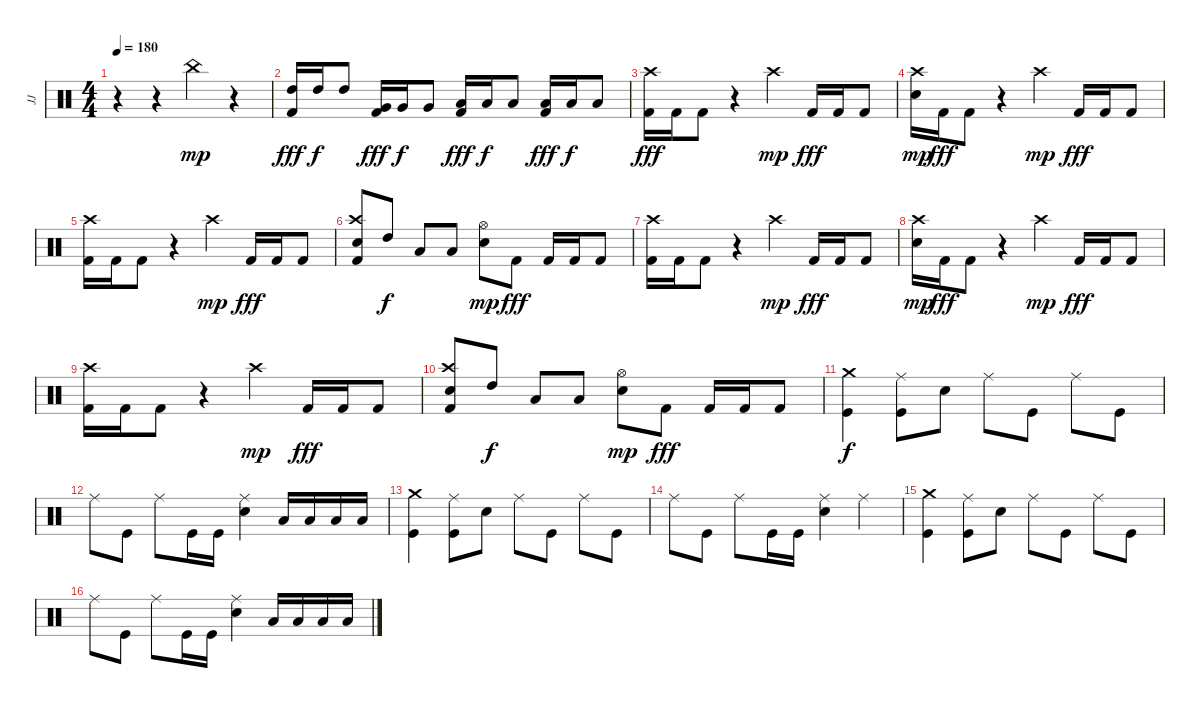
\track ("JJ" "JJ") {mute instrument percussion}
\staff {score}
\articulation defaults
\ts (4 4)
\tempo 180
\clef neutral
\ks c
r.4{dy mp} r.4 "China (hit)".4 r.4 |
("High Tom (hit)" "Kick (hit) 2").16{dy fff} "High Tom (hit)".16{dy f} "High Tom (hit)".8 ("Very Low Tom (hit)" "Kick (hit) 2").16{dy fff} "Very Low Tom (hit)".16{dy f} "Very Low Tom (hit)".8 ("Low Floor Tom (hit)" "Kick (hit) 2").16{dy fff} "Low Floor Tom (hit)".16{dy f} "Low Floor Tom (hit)".8 ("Low Floor Tom (hit)" "Kick (hit) 2").16{dy fff} "Low Floor Tom (hit)".16{dy f} "Low Floor Tom (hit)".8 |
("Crash high (hit)" "Kick (hit) 2").16{dy fff} "Kick (hit) 2".16 "Kick (hit) 2".8 r.4 "Crash high (hit)".4{dy mp} "Kick (hit) 2".16{dy fff} "Kick (hit) 2".16 "Kick (hit) 2".8 |
("Crash high (hit)" "Electric Snare (hit)").16{dy mp} "Kick (hit) 2".16{dy fff} "Kick (hit) 2".8 r.4 "Crash high (hit)".4{dy mp} "Kick (hit) 2".16{dy fff} "Kick (hit) 2".16 "Kick (hit) 2".8 |
("Crash high (hit)" "Kick (hit) 2").16 "Kick (hit) 2".16 "Kick (hit) 2".8 r.4 "Crash high (hit)".4{dy mp} "Kick (hit) 2".16{dy fff} "Kick (hit) 2".16 "Kick (hit) 2".8 |
("Crash high (hit)" "Electric Snare (hit)" "Kick (hit) 2").8 "High Tom (hit)".8{dy f} "Low Floor Tom (hit)".8 "Low Floor Tom (hit)".8 ("Hi-Hat (open)" "Electric Snare (hit)").8{dy mp} "Kick (hit) 2".8{dy fff} "Kick (hit) 2".16 "Kick (hit) 2".16 "Kick (hit) 2".8 |
("Crash high (hit)" "Kick (hit) 2").16 "Kick (hit) 2".16 "Kick (hit) 2".8 r.4 "Crash high (hit)".4{dy mp} "Kick (hit) 2".16{dy fff} "Kick (hit) 2".16 "Kick (hit) 2".8 |
("Crash high (hit)" "Electric Snare (hit)").16{dy mp} "Kick (hit) 2".16{dy fff} "Kick (hit) 2".8 r.4 "Crash high (hit)".4{dy mp} "Kick (hit) 2".16{dy fff} "Kick (hit) 2".16 "Kick (hit) 2".8 |
("Crash high (hit)" "Kick (hit) 2").16 "Kick (hit) 2".16 "Kick (hit) 2".8 r.4 "Crash high (hit)".4{dy mp} "Kick (hit) 2".16{dy fff} "Kick (hit) 2".16 "Kick (hit) 2".8 |
("Crash high (hit)" "Electric Snare (hit)" "Kick (hit) 2").8 "High Tom (hit)".8{dy f} "Low Floor Tom (hit)".8 "Low Floor Tom (hit)".8 ("Hi-Hat (open)" "Electric Snare (hit)").8{dy mp} "Kick (hit) 2".8{dy fff} "Kick (hit) 2".16 "Kick (hit) 2".16 "Kick (hit) 2".8 |
("Crash medium (hit)" "Kick (hit)").4{dy f} ("Ride (middle)" "Kick (hit)").8 "Snare (hit) 2".8 "Ride (middle)".8 "Kick (hit)".8 "Ride (middle)".8 "Kick (hit)".8 |
"Ride (middle)".8 "Kick (hit)".8 "Ride (middle)".8 "Kick (hit)".16 "Kick (hit)".16 ("Ride (middle)" "Snare (hit) 2").4 "Low Floor Tom (hit)".16 "Low Floor Tom (hit)".16 "Low Floor Tom (hit)".16 "Low Floor Tom (hit)".16 |
("Crash medium (hit)" "Kick (hit)").4 ("Ride (middle)" "Kick (hit)").8 "Snare (hit) 2".8 "Ride (middle)".8 "Kick (hit)".8 "Ride (middle)".8 "Kick (hit)".8 |
"Ride (middle)".8 "Kick (hit)".8 "Ride (middle)".8 "Kick (hit)".16 "Kick (hit)".16 ("Ride (middle)" "Snare (hit) 2").4 "Ride (middle)".4 |
("Crash medium (hit)" "Kick (hit)").4 ("Ride (middle)" "Kick (hit)").8 "Snare (hit) 2".8 "Ride (middle)".8 "Kick (hit)".8 "Ride (middle)".8 "Kick (hit)".8 |
"Ride (middle)".8 "Kick (hit)".8 "Ride (middle)".8 "Kick (hit)".16 "Kick (hit)".16 ("Ride (middle)" "Snare (hit) 2").4 "Low Floor Tom (hit)".16 "Low Floor Tom (hit)".16 "Low Floor Tom (hit)".16 "Low Floor Tom (hit)".16
